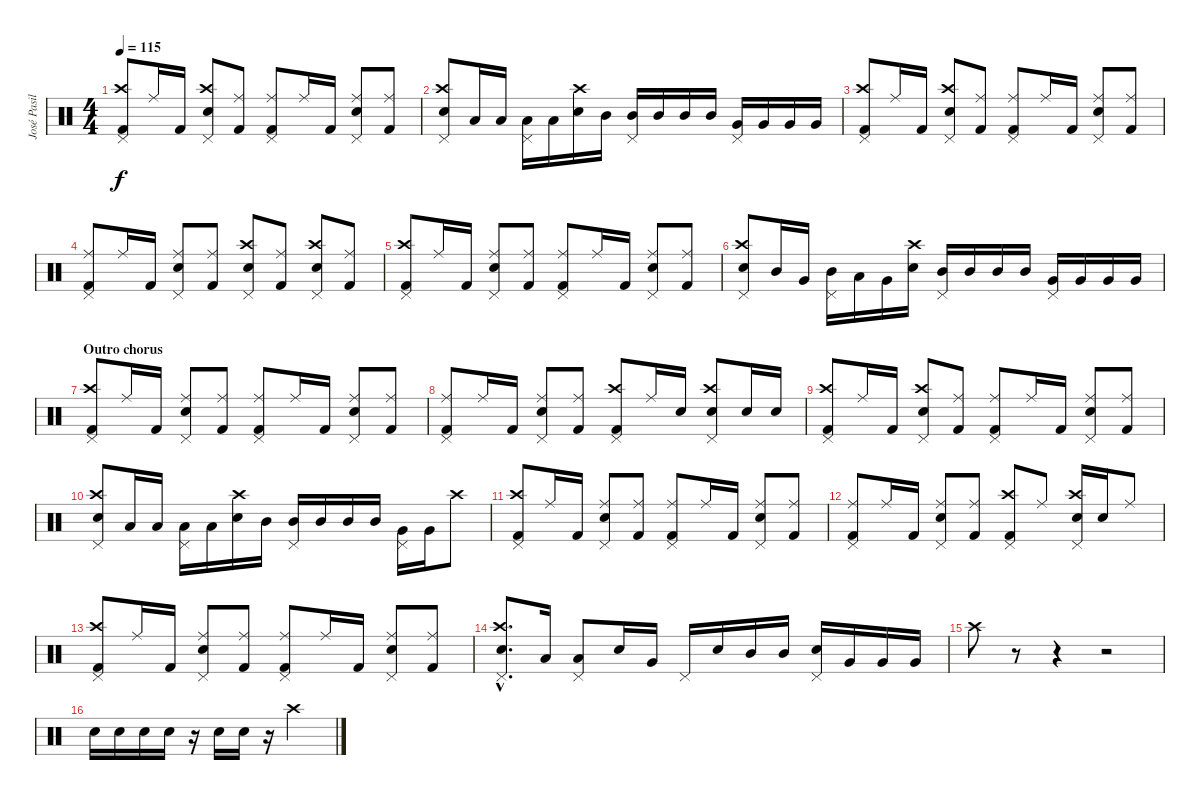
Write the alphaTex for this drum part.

\track ("José Pasillas" "José Pasil") {instrument percussion}
\staff {score}
\articulation defaults
\ts (4 4)
\tempo 115
\clef neutral
\ks c
("Pedal Hi-Hat (hit)" "Crash high (hit)" "Kick (hit) 2").8{dy f} "Ride (middle)".16 "Kick (hit) 2".16 ("Pedal Hi-Hat (hit)" "Crash high (hit)" "Electric Snare (hit)").8 ("Ride (middle)" "Kick (hit) 2").8 ("Pedal Hi-Hat (hit)" "Ride (middle)" "Kick (hit) 2").8 "Ride (middle)".16 "Kick (hit) 2".16 ("Pedal Hi-Hat (hit)" "Ride (middle)" "Electric Snare (hit)").8 ("Ride (middle)" "Kick (hit) 2").8 |
("Pedal Hi-Hat (hit)" "Crash high (hit)" "Electric Snare (hit)").8 "Low Floor Tom (hit)".16 "Low Floor Tom (hit)".16 ("Pedal Hi-Hat (hit)" "Low Floor Tom (hit)").16 "Low Floor Tom (hit)".16 ("Crash high (hit)" "Electric Snare (hit)").16 "Mid Tom (hit)".16 ("Pedal Hi-Hat (hit)" "Mid Tom (hit)").16 "Mid Tom (hit)".16 "Mid Tom (hit)".16 "Mid Tom (hit)".16 ("Pedal Hi-Hat (hit)" "Very Low Tom (hit)").16 "Very Low Tom (hit)".16 "Very Low Tom (hit)".16 "Very Low Tom (hit)".16 |
("Pedal Hi-Hat (hit)" "Crash high (hit)" "Kick (hit) 2").8 "Ride (middle)".16 "Kick (hit) 2".16 ("Pedal Hi-Hat (hit)" "Crash high (hit)" "Electric Snare (hit)").8 ("Ride (middle)" "Kick (hit) 2").8 ("Pedal Hi-Hat (hit)" "Ride (middle)" "Kick (hit) 2").8 "Ride (middle)".16 "Kick (hit) 2".16 ("Pedal Hi-Hat (hit)" "Ride (middle)" "Electric Snare (hit)").8 ("Ride (middle)" "Kick (hit) 2").8 |
("Pedal Hi-Hat (hit)" "Ride (middle)" "Kick (hit) 2").8 "Ride (middle)".16 "Kick (hit) 2".16 ("Pedal Hi-Hat (hit)" "Ride (middle)" "Electric Snare (hit)").8 ("Ride (middle)" "Kick (hit) 2").8 ("Pedal Hi-Hat (hit)" "Crash high (hit)" "Electric Snare (hit)").8 ("Ride (middle)" "Kick (hit) 2").8 ("Pedal Hi-Hat (hit)" "Crash high (hit)" "Electric Snare (hit)").8 ("Ride (middle)" "Kick (hit) 2").8 |
("Pedal Hi-Hat (hit)" "Crash high (hit)" "Kick (hit) 2").8 "Ride (middle)".16 "Kick (hit) 2".16 ("Pedal Hi-Hat (hit)" "Ride (middle)" "Electric Snare (hit)").8 ("Ride (middle)" "Kick (hit) 2").8 ("Pedal Hi-Hat (hit)" "Ride (middle)" "Kick (hit) 2").8 "Ride (middle)".16 "Kick (hit) 2".16 ("Pedal Hi-Hat (hit)" "Ride (middle)" "Electric Snare (hit)").8 ("Ride (middle)" "Kick (hit) 2").8 |
("Pedal Hi-Hat (hit)" "Crash high (hit)" "Electric Snare (hit)").8 "Mid Tom (hit)".16 "Very Low Tom (hit)".16 ("Pedal Hi-Hat (hit)" "Mid Tom (hit)").16 "Low Floor Tom (hit)".16 "Very Low Tom (hit)".16 ("Crash high (hit)" "Electric Snare (hit)").16 ("Pedal Hi-Hat (hit)" "Mid Tom (hit)").16 "Mid Tom (hit)".16 "Mid Tom (hit)".16 "Mid Tom (hit)".16 ("Pedal Hi-Hat (hit)" "Very Low Tom (hit)").16 "Very Low Tom (hit)".16 "Very Low Tom (hit)".16 "Very Low Tom (hit)".16 |
\section ("" "Outro chorus")
("Pedal Hi-Hat (hit)" "Crash high (hit)" "Kick (hit) 2").8 "Ride (middle)".16 "Kick (hit) 2".16 ("Pedal Hi-Hat (hit)" "Ride (middle)" "Electric Snare (hit)").8 ("Ride (middle)" "Kick (hit) 2").8 ("Pedal Hi-Hat (hit)" "Ride (middle)" "Kick (hit) 2").8 "Ride (middle)".16 "Kick (hit) 2".16 ("Pedal Hi-Hat (hit)" "Ride (middle)" "Electric Snare (hit)").8 ("Ride (middle)" "Kick (hit) 2").8 |
("Pedal Hi-Hat (hit)" "Ride (middle)" "Kick (hit) 2").8 "Ride (middle)".16 "Kick (hit) 2".16 ("Pedal Hi-Hat (hit)" "Ride (middle)" "Electric Snare (hit)").8 ("Ride (middle)" "Kick (hit) 2").8 ("Pedal Hi-Hat (hit)" "Crash high (hit)" "Kick (hit) 2").8 "Ride (middle)".16 "Electric Snare (hit)".16 ("Pedal Hi-Hat (hit)" "Crash high (hit)" "Electric Snare (hit)").8 "Electric Snare (hit)".16 "Electric Snare (hit)".16 |
("Pedal Hi-Hat (hit)" "Crash high (hit)" "Kick (hit) 2").8 "Ride (middle)".16 "Kick (hit) 2".16 ("Pedal Hi-Hat (hit)" "Crash high (hit)" "Electric Snare (hit)").8 ("Ride (middle)" "Kick (hit) 2").8 ("Pedal Hi-Hat (hit)" "Ride (middle)" "Kick (hit) 2").8 "Ride (middle)".16 "Kick (hit) 2".16 ("Pedal Hi-Hat (hit)" "Ride (middle)" "Electric Snare (hit)").8 ("Ride (middle)" "Kick (hit) 2").8 |
("Pedal Hi-Hat (hit)" "Crash high (hit)" "Electric Snare (hit)").8 "Low Floor Tom (hit)".16 "Low Floor Tom (hit)".16 ("Pedal Hi-Hat (hit)" "Low Floor Tom (hit)").16 "Low Floor Tom (hit)".16 ("Crash high (hit)" "Electric Snare (hit)").16 "Mid Tom (hit)".16 ("Pedal Hi-Hat (hit)" "Mid Tom (hit)").16 "Mid Tom (hit)".16 "Mid Tom (hit)".16 "Mid Tom (hit)".16 ("Pedal Hi-Hat (hit)" "Very Low Tom (hit)").16 "Very Low Tom (hit)".16 "Crash high (hit)".8 |
("Pedal Hi-Hat (hit)" "Crash high (hit)" "Kick (hit) 2").8 "Ride (middle)".16 "Kick (hit) 2".16 ("Pedal Hi-Hat (hit)" "Ride (middle)" "Electric Snare (hit)").8 ("Ride (middle)" "Kick (hit) 2").8 ("Pedal Hi-Hat (hit)" "Ride (middle)" "Kick (hit) 2").8 "Ride (middle)".16 "Kick (hit) 2".16 ("Pedal Hi-Hat (hit)" "Ride (middle)" "Electric Snare (hit)").8 ("Ride (middle)" "Kick (hit) 2").8 |
("Pedal Hi-Hat (hit)" "Ride (middle)" "Kick (hit) 2").8 "Ride (middle)".16 "Kick (hit) 2".16 ("Pedal Hi-Hat (hit)" "Ride (middle)" "Electric Snare (hit)").8 ("Ride (middle)" "Kick (hit) 2").8 ("Pedal Hi-Hat (hit)" "Crash high (hit)" "Kick (hit) 2").8 "Ride (middle)".8 ("Pedal Hi-Hat (hit)" "Crash high (hit)" "Electric Snare (hit)").16 "Electric Snare (hit)".16 "Ride (middle)".8 |
("Pedal Hi-Hat (hit)" "Crash high (hit)" "Kick (hit) 2").8 "Ride (middle)".16 "Kick (hit) 2".16 ("Pedal Hi-Hat (hit)" "Ride (middle)" "Electric Snare (hit)").8 ("Ride (middle)" "Kick (hit) 2").8 ("Pedal Hi-Hat (hit)" "Ride (middle)" "Kick (hit) 2").8 "Ride (middle)".16 "Kick (hit) 2".16 ("Pedal Hi-Hat (hit)" "Ride (middle)" "Electric Snare (hit)").8 ("Ride (middle)" "Kick (hit) 2").8 |
("Pedal Hi-Hat (hit)"{hac} "Crash high (hit)"{hac} "Electric Snare (hit)"{hac}).8{d} "Low Floor Tom (hit)".16 ("Pedal Hi-Hat (hit)" "Low Floor Tom (hit)").8 "Electric Snare (hit)".16 "Very Low Tom (hit)".16 "Pedal Hi-Hat (hit)".16 "Electric Snare (hit)".16 "Mid Tom (hit)".16 "Mid Tom (hit)".16 ("Pedal Hi-Hat (hit)" "Electric Snare (hit)").16 "Very Low Tom (hit)".16 "Very Low Tom (hit)".16 "Very Low Tom (hit)".16 |
"Crash high (hit)".8 r.8 r.4 r.2 |
"Electric Snare (hit)".16 "Electric Snare (hit)".16 "Electric Snare (hit)".16 "Electric Snare (hit)".16 r.16 "Electric Snare (hit)".16 "Electric Snare (hit)".16 r.16 "Crash high (hit)".2
